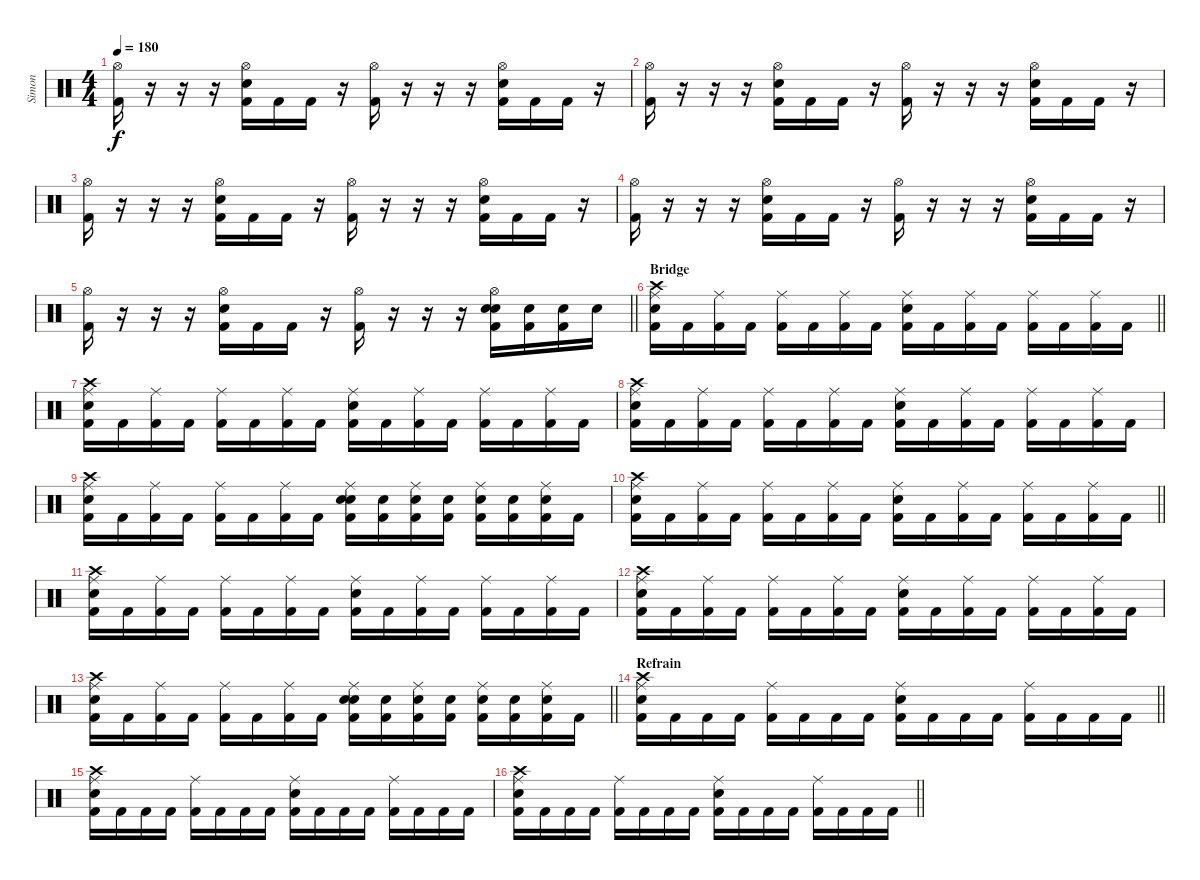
\track ("Simon" "Simon") {instrument percussion}
\staff {score}
\articulation defaults
\ts (4 4)
\tempo 180
\clef neutral
\ks c
("Hi-Hat (open)" "Kick (hit) 2").16{dy f} r.16 r.16 r.16 ("Hi-Hat (open)" "Electric Snare (hit)" "Kick (hit) 2").16 "Kick (hit) 2".16 "Kick (hit) 2".16 r.16 ("Hi-Hat (open)" "Kick (hit) 2").16 r.16 r.16 r.16 ("Hi-Hat (open)" "Electric Snare (hit)" "Kick (hit) 2").16 "Kick (hit) 2".16 "Kick (hit) 2".16 r.16 |
("Hi-Hat (open)" "Kick (hit) 2").16 r.16 r.16 r.16 ("Hi-Hat (open)" "Electric Snare (hit)" "Kick (hit) 2").16 "Kick (hit) 2".16 "Kick (hit) 2".16 r.16 ("Hi-Hat (open)" "Kick (hit) 2").16 r.16 r.16 r.16 ("Hi-Hat (open)" "Electric Snare (hit)" "Kick (hit) 2").16 "Kick (hit) 2".16 "Kick (hit) 2".16 r.16 |
("Hi-Hat (open)" "Kick (hit) 2").16 r.16 r.16 r.16 ("Hi-Hat (open)" "Electric Snare (hit)" "Kick (hit) 2").16 "Kick (hit) 2".16 "Kick (hit) 2".16 r.16 ("Hi-Hat (open)" "Kick (hit) 2").16 r.16 r.16 r.16 ("Hi-Hat (open)" "Electric Snare (hit)" "Kick (hit) 2").16 "Kick (hit) 2".16 "Kick (hit) 2".16 r.16 |
("Hi-Hat (open)" "Kick (hit) 2").16 r.16 r.16 r.16 ("Hi-Hat (open)" "Electric Snare (hit)" "Kick (hit) 2").16 "Kick (hit) 2".16 "Kick (hit) 2".16 r.16 ("Hi-Hat (open)" "Kick (hit) 2").16 r.16 r.16 r.16 ("Hi-Hat (open)" "Electric Snare (hit)" "Kick (hit) 2").16 "Kick (hit) 2".16 "Kick (hit) 2".16 r.16 |
\barLineRight lightlight
("Hi-Hat (open)" "Kick (hit) 2").16 r.16 r.16 r.16 ("Hi-Hat (open)" "Electric Snare (hit)" "Kick (hit) 2").16 "Kick (hit) 2".16 "Kick (hit) 2".16 r.16 ("Hi-Hat (open)" "Kick (hit) 2").16 r.16 r.16 r.16 ("Hi-Hat (open)" "Electric Snare (hit)" "Electric Snare (hit)" "Kick (hit) 2").16 ("Electric Snare (hit)" "Kick (hit) 2").16 ("Electric Snare (hit)" "Kick (hit) 2").16 "Electric Snare (hit)".16 |
\section ("" "Bridge")
\barLineRight lightlight
("Electric Snare (hit)" "Crash high (hit)" "Ride (middle)" "Kick (hit) 2").16 "Kick (hit) 2".16 ("Ride (middle)" "Kick (hit) 2").16 "Kick (hit) 2".16 ("Ride (middle)" "Kick (hit) 2").16 "Kick (hit) 2".16 ("Ride (middle)" "Kick (hit) 2").16 "Kick (hit) 2".16 ("Electric Snare (hit)" "Ride (middle)" "Kick (hit) 2").16 "Kick (hit) 2".16 ("Ride (middle)" "Kick (hit) 2").16 "Kick (hit) 2".16 ("Ride (middle)" "Kick (hit) 2").16 "Kick (hit) 2".16 ("Ride (middle)" "Kick (hit) 2").16 "Kick (hit) 2".16 |
("Electric Snare (hit)" "Crash high (hit)" "Ride (middle)" "Kick (hit) 2").16 "Kick (hit) 2".16 ("Ride (middle)" "Kick (hit) 2").16 "Kick (hit) 2".16 ("Ride (middle)" "Kick (hit) 2").16 "Kick (hit) 2".16 ("Ride (middle)" "Kick (hit) 2").16 "Kick (hit) 2".16 ("Electric Snare (hit)" "Ride (middle)" "Kick (hit) 2").16 "Kick (hit) 2".16 ("Ride (middle)" "Kick (hit) 2").16 "Kick (hit) 2".16 ("Ride (middle)" "Kick (hit) 2").16 "Kick (hit) 2".16 ("Ride (middle)" "Kick (hit) 2").16 "Kick (hit) 2".16 |
("Electric Snare (hit)" "Crash high (hit)" "Ride (middle)" "Kick (hit) 2").16 "Kick (hit) 2".16 ("Ride (middle)" "Kick (hit) 2").16 "Kick (hit) 2".16 ("Ride (middle)" "Kick (hit) 2").16 "Kick (hit) 2".16 ("Ride (middle)" "Kick (hit) 2").16 "Kick (hit) 2".16 ("Electric Snare (hit)" "Ride (middle)" "Kick (hit) 2").16 "Kick (hit) 2".16 ("Ride (middle)" "Kick (hit) 2").16 "Kick (hit) 2".16 ("Ride (middle)" "Kick (hit) 2").16 "Kick (hit) 2".16 ("Ride (middle)" "Kick (hit) 2").16 "Kick (hit) 2".16 |
("Electric Snare (hit)" "Crash high (hit)" "Ride (middle)" "Kick (hit) 2").16 "Kick (hit) 2".16 ("Ride (middle)" "Kick (hit) 2").16 "Kick (hit) 2".16 ("Ride (middle)" "Kick (hit) 2").16 "Kick (hit) 2".16 ("Ride (middle)" "Kick (hit) 2").16 "Kick (hit) 2".16 ("Electric Snare (hit)" "Ride (middle)" "Electric Snare (hit)" "Kick (hit) 2").16 ("Electric Snare (hit)" "Kick (hit) 2").16 ("Ride (middle)" "Electric Snare (hit)" "Kick (hit) 2").16 ("Electric Snare (hit)" "Kick (hit) 2").16 ("Ride (middle)" "Electric Snare (hit)" "Kick (hit) 2").16 ("Electric Snare (hit)" "Kick (hit) 2").16 ("Ride (middle)" "Electric Snare (hit)" "Kick (hit) 2").16 "Kick (hit) 2".16 |
\barLineRight lightlight
("Electric Snare (hit)" "Crash high (hit)" "Ride (middle)" "Kick (hit) 2").16 "Kick (hit) 2".16 ("Ride (middle)" "Kick (hit) 2").16 "Kick (hit) 2".16 ("Ride (middle)" "Kick (hit) 2").16 "Kick (hit) 2".16 ("Ride (middle)" "Kick (hit) 2").16 "Kick (hit) 2".16 ("Electric Snare (hit)" "Ride (middle)" "Kick (hit) 2").16 "Kick (hit) 2".16 ("Ride (middle)" "Kick (hit) 2").16 "Kick (hit) 2".16 ("Ride (middle)" "Kick (hit) 2").16 "Kick (hit) 2".16 ("Ride (middle)" "Kick (hit) 2").16 "Kick (hit) 2".16 |
("Electric Snare (hit)" "Crash high (hit)" "Ride (middle)" "Kick (hit) 2").16 "Kick (hit) 2".16 ("Ride (middle)" "Kick (hit) 2").16 "Kick (hit) 2".16 ("Ride (middle)" "Kick (hit) 2").16 "Kick (hit) 2".16 ("Ride (middle)" "Kick (hit) 2").16 "Kick (hit) 2".16 ("Electric Snare (hit)" "Ride (middle)" "Kick (hit) 2").16 "Kick (hit) 2".16 ("Ride (middle)" "Kick (hit) 2").16 "Kick (hit) 2".16 ("Ride (middle)" "Kick (hit) 2").16 "Kick (hit) 2".16 ("Ride (middle)" "Kick (hit) 2").16 "Kick (hit) 2".16 |
("Electric Snare (hit)" "Crash high (hit)" "Ride (middle)" "Kick (hit) 2").16 "Kick (hit) 2".16 ("Ride (middle)" "Kick (hit) 2").16 "Kick (hit) 2".16 ("Ride (middle)" "Kick (hit) 2").16 "Kick (hit) 2".16 ("Ride (middle)" "Kick (hit) 2").16 "Kick (hit) 2".16 ("Electric Snare (hit)" "Ride (middle)" "Kick (hit) 2").16 "Kick (hit) 2".16 ("Ride (middle)" "Kick (hit) 2").16 "Kick (hit) 2".16 ("Ride (middle)" "Kick (hit) 2").16 "Kick (hit) 2".16 ("Ride (middle)" "Kick (hit) 2").16 "Kick (hit) 2".16 |
\barLineRight lightlight
("Electric Snare (hit)" "Crash high (hit)" "Ride (middle)" "Kick (hit) 2").16 "Kick (hit) 2".16 ("Ride (middle)" "Kick (hit) 2").16 "Kick (hit) 2".16 ("Ride (middle)" "Kick (hit) 2").16 "Kick (hit) 2".16 ("Ride (middle)" "Kick (hit) 2").16 "Kick (hit) 2".16 ("Electric Snare (hit)" "Ride (middle)" "Electric Snare (hit)" "Kick (hit) 2").16 ("Electric Snare (hit)" "Kick (hit) 2").16 ("Ride (middle)" "Electric Snare (hit)" "Kick (hit) 2").16 ("Electric Snare (hit)" "Kick (hit) 2").16 ("Ride (middle)" "Electric Snare (hit)" "Kick (hit) 2").16 ("Electric Snare (hit)" "Kick (hit) 2").16 ("Ride (middle)" "Electric Snare (hit)" "Kick (hit) 2").16 "Kick (hit) 2".16 |
\section ("" "Refrain")
\barLineRight lightlight
("Electric Snare (hit)" "Crash high (hit)" "Ride (middle)" "Kick (hit) 2").16 "Kick (hit) 2".16 "Kick (hit) 2".16 "Kick (hit) 2".16 ("Ride (middle)" "Kick (hit) 2").16 "Kick (hit) 2".16 "Kick (hit) 2".16 "Kick (hit) 2".16 ("Electric Snare (hit)" "Ride (middle)" "Kick (hit) 2").16 "Kick (hit) 2".16 "Kick (hit) 2".16 "Kick (hit) 2".16 ("Ride (middle)" "Kick (hit) 2").16 "Kick (hit) 2".16 "Kick (hit) 2".16 "Kick (hit) 2".16 |
("Electric Snare (hit)" "Crash high (hit)" "Ride (middle)" "Kick (hit) 2").16 "Kick (hit) 2".16 "Kick (hit) 2".16 "Kick (hit) 2".16 ("Ride (middle)" "Kick (hit) 2").16 "Kick (hit) 2".16 "Kick (hit) 2".16 "Kick (hit) 2".16 ("Electric Snare (hit)" "Ride (middle)" "Kick (hit) 2").16 "Kick (hit) 2".16 "Kick (hit) 2".16 "Kick (hit) 2".16 ("Ride (middle)" "Kick (hit) 2").16 "Kick (hit) 2".16 "Kick (hit) 2".16 "Kick (hit) 2".16 |
\barLineRight lightlight
("Electric Snare (hit)" "Crash high (hit)" "Ride (middle)" "Kick (hit) 2").16 "Kick (hit) 2".16 "Kick (hit) 2".16 "Kick (hit) 2".16 ("Ride (middle)" "Kick (hit) 2").16 "Kick (hit) 2".16 "Kick (hit) 2".16 "Kick (hit) 2".16 ("Electric Snare (hit)" "Ride (middle)" "Kick (hit) 2").16 "Kick (hit) 2".16 "Kick (hit) 2".16 "Kick (hit) 2".16 ("Ride (middle)" "Kick (hit) 2").16 "Kick (hit) 2".16 "Kick (hit) 2".16 "Kick (hit) 2".16
